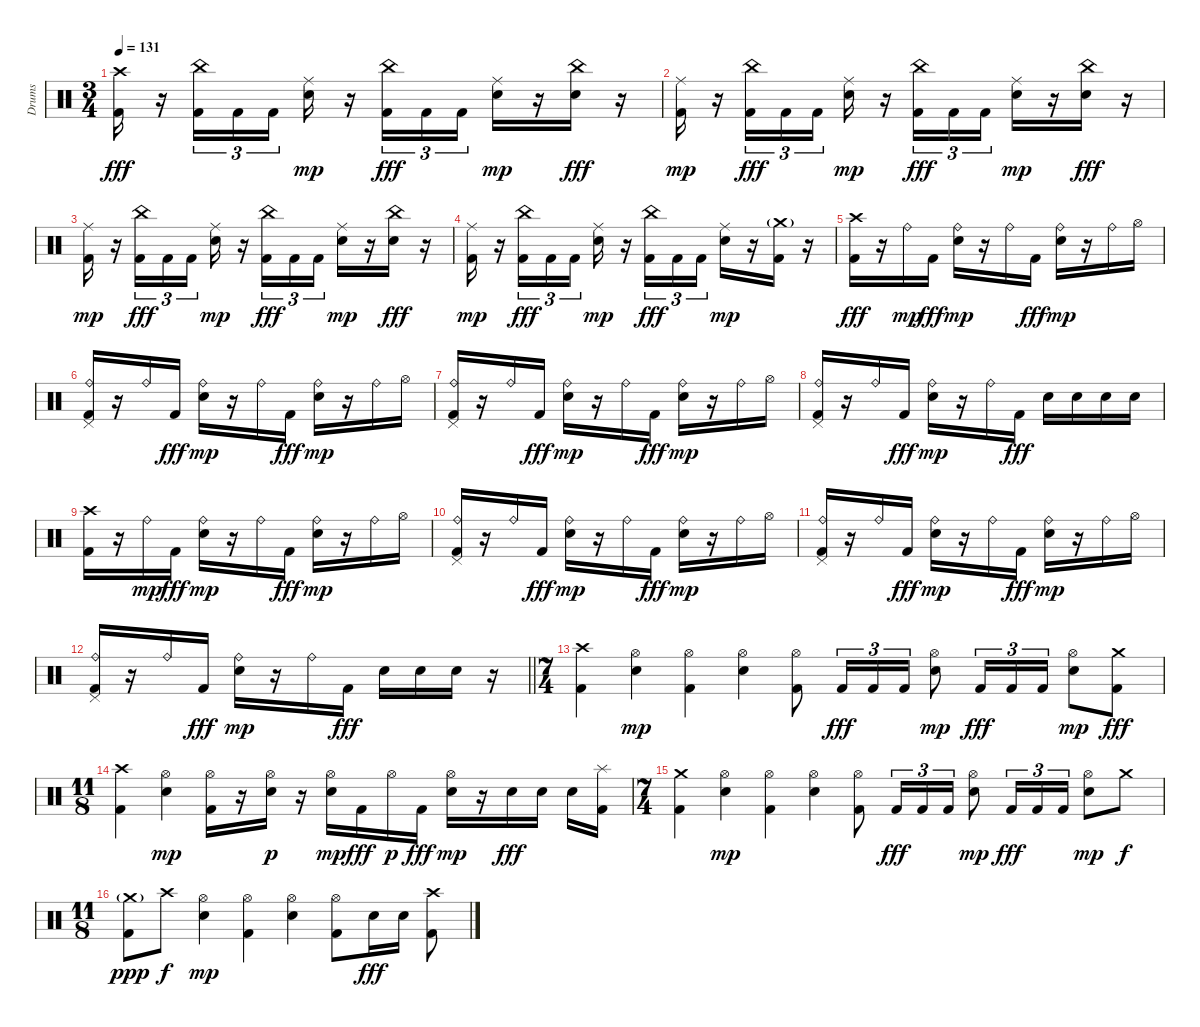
\track ("Drums" "Drums") {instrument percussion}
\staff {score}
\articulation defaults
\ts (3 4)
\tempo 131
\clef neutral
\ks c
("Kick (hit) 2" "Crash high (hit)").16{dy fff} r.16 ("Kick (hit) 2" "China (hit)").16{tu (3 2)} "Kick (hit) 2".16{tu (3 2)} "Kick (hit) 2".16{tu (3 2)} ("Electric Snare (hit)" "Ride (middle)").16{dy mp} r.16 ("Kick (hit) 2" "China (hit)").16{tu (3 2) dy fff} "Kick (hit) 2".16{tu (3 2)} "Kick (hit) 2".16{tu (3 2)} ("Electric Snare (hit)" "Ride (middle)").16{dy mp} r.16 ("Electric Snare (hit)" "China (hit)").16{dy fff} r.16 |
("Kick (hit) 2" "Ride (middle)").16{dy mp} r.16 ("Kick (hit) 2" "China (hit)").16{tu (3 2) dy fff} "Kick (hit) 2".16{tu (3 2)} "Kick (hit) 2".16{tu (3 2)} ("Electric Snare (hit)" "Ride (middle)").16{dy mp} r.16 ("Kick (hit) 2" "China (hit)").16{tu (3 2) dy fff} "Kick (hit) 2".16{tu (3 2)} "Kick (hit) 2".16{tu (3 2)} ("Electric Snare (hit)" "Ride (middle)").16{dy mp} r.16 ("Electric Snare (hit)" "China (hit)").16{dy fff} r.16 |
("Kick (hit) 2" "Ride (middle)").16{dy mp} r.16 ("Kick (hit) 2" "China (hit)").16{tu (3 2) dy fff} "Kick (hit) 2".16{tu (3 2)} "Kick (hit) 2".16{tu (3 2)} ("Electric Snare (hit)" "Ride (middle)").16{dy mp} r.16 ("Kick (hit) 2" "China (hit)").16{tu (3 2) dy fff} "Kick (hit) 2".16{tu (3 2)} "Kick (hit) 2".16{tu (3 2)} ("Electric Snare (hit)" "Ride (middle)").16{dy mp} r.16 ("Electric Snare (hit)" "China (hit)").16{dy fff} r.16 |
("Kick (hit) 2" "Ride (middle)").16{dy mp} r.16 ("Kick (hit) 2" "China (hit)").16{tu (3 2) dy fff} "Kick (hit) 2".16{tu (3 2)} "Kick (hit) 2".16{tu (3 2)} ("Electric Snare (hit)" "Ride (middle)").16{dy mp} r.16 ("Kick (hit) 2" "China (hit)").16{tu (3 2) dy fff} "Kick (hit) 2".16{tu (3 2)} "Kick (hit) 2".16{tu (3 2)} ("Electric Snare (hit)" "Ride (middle)").16{dy mp} r.16 ("Kick (hit) 2" "Crash medium (hit)"{g}).16 r.16 |
("Kick (hit) 2" "Crash high (hit)").16{dy fff} r.16 "Ride (bell)".16{dy mp} "Kick (hit) 2".16{dy fff} ("Electric Snare (hit)" "Ride (bell)").16{dy mp} r.16 "Ride (bell)".16 "Kick (hit) 2".16{dy fff} ("Electric Snare (hit)" "Ride (bell)").16{dy mp} r.16 "Ride (bell)".16 "Hi-Hat (open)".16 |
("Kick (hit) 2" "Ride (bell)" "Pedal Hi-Hat (hit)").16 r.16 "Ride (bell)".16 "Kick (hit) 2".16{dy fff} ("Electric Snare (hit)" "Ride (bell)").16{dy mp} r.16 "Ride (bell)".16 "Kick (hit) 2".16{dy fff} ("Electric Snare (hit)" "Ride (bell)").16{dy mp} r.16 "Ride (bell)".16 "Hi-Hat (open)".16 |
("Kick (hit) 2" "Ride (bell)" "Pedal Hi-Hat (hit)").16 r.16 "Ride (bell)".16 "Kick (hit) 2".16{dy fff} ("Electric Snare (hit)" "Ride (bell)").16{dy mp} r.16 "Ride (bell)".16 "Kick (hit) 2".16{dy fff} ("Electric Snare (hit)" "Ride (bell)").16{dy mp} r.16 "Ride (bell)".16 "Hi-Hat (open)".16 |
("Kick (hit) 2" "Ride (bell)" "Pedal Hi-Hat (hit)").16 r.16 "Ride (bell)".16 "Kick (hit) 2".16{dy fff} ("Electric Snare (hit)" "Ride (bell)").16{dy mp} r.16 "Ride (bell)".16 "Kick (hit) 2".16{dy fff} "Electric Snare (hit)".16 "Electric Snare (hit)".16 "Electric Snare (hit)".16 "Electric Snare (hit)".16 |
("Kick (hit) 2" "Crash high (hit)").16 r.16 "Ride (bell)".16{dy mp} "Kick (hit) 2".16{dy fff} ("Electric Snare (hit)" "Ride (bell)").16{dy mp} r.16 "Ride (bell)".16 "Kick (hit) 2".16{dy fff} ("Electric Snare (hit)" "Ride (bell)").16{dy mp} r.16 "Ride (bell)".16 "Hi-Hat (open)".16 |
("Kick (hit) 2" "Ride (bell)" "Pedal Hi-Hat (hit)").16 r.16 "Ride (bell)".16 "Kick (hit) 2".16{dy fff} ("Electric Snare (hit)" "Ride (bell)").16{dy mp} r.16 "Ride (bell)".16 "Kick (hit) 2".16{dy fff} ("Electric Snare (hit)" "Ride (bell)").16{dy mp} r.16 "Ride (bell)".16 "Hi-Hat (open)".16 |
("Kick (hit) 2" "Ride (bell)" "Pedal Hi-Hat (hit)").16 r.16 "Ride (bell)".16 "Kick (hit) 2".16{dy fff} ("Electric Snare (hit)" "Ride (bell)").16{dy mp} r.16 "Ride (bell)".16 "Kick (hit) 2".16{dy fff} ("Electric Snare (hit)" "Ride (bell)").16{dy mp} r.16 "Ride (bell)".16 "Hi-Hat (open)".16 |
\barLineRight lightlight
("Kick (hit) 2" "Ride (bell)" "Pedal Hi-Hat (hit)").16 r.16 "Ride (bell)".16 "Kick (hit) 2".16{dy fff} ("Electric Snare (hit)" "Ride (bell)").16{dy mp} r.16 "Ride (bell)".16 "Kick (hit) 2".16{dy fff} "Electric Snare (hit)".16 "Electric Snare (hit)".16 "Electric Snare (hit)".16 r.16 |
\ts (7 4)
("Kick (hit) 2" "Crash high (hit)").4 ("Electric Snare (hit)" "Hi-Hat (open)").4{dy mp} ("Kick (hit) 2" "Hi-Hat (open)").4 ("Electric Snare (hit)" "Hi-Hat (open)").4 ("Kick (hit) 2" "Hi-Hat (open)").8 "Kick (hit) 2".16{tu (3 2) dy fff} "Kick (hit) 2".16{tu (3 2)} "Kick (hit) 2".16{tu (3 2)} ("Electric Snare (hit)" "Hi-Hat (open)").8{dy mp} "Kick (hit) 2".16{tu (3 2) dy fff} "Kick (hit) 2".16{tu (3 2)} "Kick (hit) 2".16{tu (3 2)} ("Electric Snare (hit)" "Hi-Hat (open)").8{dy mp} ("Kick (hit) 2" "Crash medium (hit)").8{dy fff} |
\ts (11 8)
("Kick (hit) 2" "Crash high (hit)").4 ("Electric Snare (hit)" "Hi-Hat (open)").4{dy mp} ("Kick (hit) 2" "Hi-Hat (open)").16 r.16 ("Electric Snare (hit)" "Hi-Hat (open)").16{dy p} r.16 ("Electric Snare (hit)" "Hi-Hat (open)").16{dy mp} "Kick (hit) 2".16{dy fff} "Hi-Hat (open)".16{dy p} "Kick (hit) 2".16{dy fff} ("Electric Snare (hit)" "Hi-Hat (open)").16{dy mp} r.16 "Electric Snare (hit)".16{dy fff} "Electric Snare (hit)".16 "Electric Snare (hit)".16 ("Kick (hit) 2" "Splash (hit)").16 |
\ts (7 4)
("Kick (hit) 2" "Crash medium (hit)").4 ("Electric Snare (hit)" "Hi-Hat (open)").4{dy mp} ("Kick (hit) 2" "Hi-Hat (open)").4 ("Electric Snare (hit)" "Hi-Hat (open)").4 ("Kick (hit) 2" "Hi-Hat (open)").8 "Kick (hit) 2".16{tu (3 2) dy fff} "Kick (hit) 2".16{tu (3 2)} "Kick (hit) 2".16{tu (3 2)} ("Electric Snare (hit)" "Hi-Hat (open)").8{dy mp} "Kick (hit) 2".16{tu (3 2) dy fff} "Kick (hit) 2".16{tu (3 2)} "Kick (hit) 2".16{tu (3 2)} ("Electric Snare (hit)" "Hi-Hat (open)").8{dy mp} "Crash medium (hit)".8{dy f} |
\ts (11 8)
("Kick (hit) 2" "Crash medium (hit)"{g}).8{dy ppp} "Crash high (hit)".8{dy f} ("Electric Snare (hit)" "Hi-Hat (open)").4{dy mp} ("Kick (hit) 2" "Hi-Hat (open)").4 ("Electric Snare (hit)" "Hi-Hat (open)").4 ("Kick (hit) 2" "Hi-Hat (open)").8 "Electric Snare (hit)".16{dy fff} "Electric Snare (hit)".16 ("Kick (hit) 2" "Crash high (hit)").8
